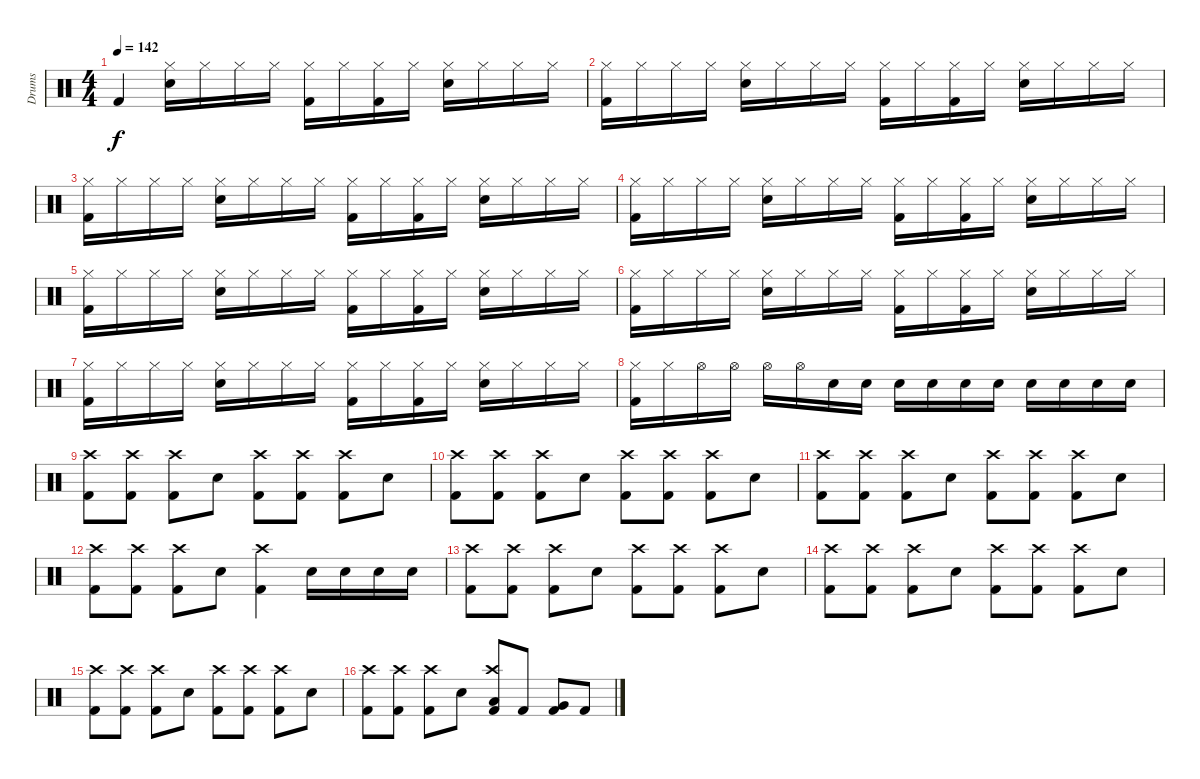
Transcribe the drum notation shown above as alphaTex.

\track ("Drums" "Drums") {instrument percussion}
\staff {score}
\articulation defaults
\ts (4 4)
\tempo 142
\clef neutral
\ks c "Kick (hit) 2".4{dy f}
("Hi-Hat (closed)" "Snare (hit) 2").16 "Hi-Hat (closed)".16 "Hi-Hat (closed)".16 "Hi-Hat (closed)".16 ("Hi-Hat (closed)" "Kick (hit) 2").16 "Hi-Hat (closed)".16 ("Hi-Hat (closed)" "Kick (hit) 2").16 "Hi-Hat (closed)".16 ("Hi-Hat (closed)" "Snare (hit) 2").16 "Hi-Hat (closed)".16 "Hi-Hat (closed)".16 "Hi-Hat (closed)".16 |
("Hi-Hat (closed)" "Kick (hit) 2").16 "Hi-Hat (closed)".16 "Hi-Hat (closed)".16 "Hi-Hat (closed)".16 ("Hi-Hat (closed)" "Snare (hit) 2").16 "Hi-Hat (closed)".16 "Hi-Hat (closed)".16 "Hi-Hat (closed)".16 ("Hi-Hat (closed)" "Kick (hit) 2").16 "Hi-Hat (closed)".16 ("Hi-Hat (closed)" "Kick (hit) 2").16 "Hi-Hat (closed)".16 ("Hi-Hat (closed)" "Snare (hit) 2").16 "Hi-Hat (closed)".16 "Hi-Hat (closed)".16 "Hi-Hat (closed)".16 |
("Hi-Hat (closed)" "Kick (hit) 2").16 "Hi-Hat (closed)".16 "Hi-Hat (closed)".16 "Hi-Hat (closed)".16 ("Hi-Hat (closed)" "Snare (hit) 2").16 "Hi-Hat (closed)".16 "Hi-Hat (closed)".16 "Hi-Hat (closed)".16 ("Hi-Hat (closed)" "Kick (hit) 2").16 "Hi-Hat (closed)".16 ("Hi-Hat (closed)" "Kick (hit) 2").16 "Hi-Hat (closed)".16 ("Hi-Hat (closed)" "Snare (hit) 2").16 "Hi-Hat (closed)".16 "Hi-Hat (closed)".16 "Hi-Hat (closed)".16 |
("Hi-Hat (closed)" "Kick (hit) 2").16 "Hi-Hat (closed)".16 "Hi-Hat (closed)".16 "Hi-Hat (closed)".16 ("Hi-Hat (closed)" "Snare (hit) 2").16 "Hi-Hat (closed)".16 "Hi-Hat (closed)".16 "Hi-Hat (closed)".16 ("Hi-Hat (closed)" "Kick (hit) 2").16 "Hi-Hat (closed)".16 ("Hi-Hat (closed)" "Kick (hit) 2").16 "Hi-Hat (closed)".16 ("Hi-Hat (closed)" "Snare (hit) 2").16 "Hi-Hat (closed)".16 "Hi-Hat (closed)".16 "Hi-Hat (closed)".16 |
("Hi-Hat (closed)" "Kick (hit) 2").16 "Hi-Hat (closed)".16 "Hi-Hat (closed)".16 "Hi-Hat (closed)".16 ("Hi-Hat (closed)" "Snare (hit) 2").16 "Hi-Hat (closed)".16 "Hi-Hat (closed)".16 "Hi-Hat (closed)".16 ("Hi-Hat (closed)" "Kick (hit) 2").16 "Hi-Hat (closed)".16 ("Hi-Hat (closed)" "Kick (hit) 2").16 "Hi-Hat (closed)".16 ("Hi-Hat (closed)" "Snare (hit) 2").16 "Hi-Hat (closed)".16 "Hi-Hat (closed)".16 "Hi-Hat (closed)".16 |
("Hi-Hat (closed)" "Kick (hit) 2").16 "Hi-Hat (closed)".16 "Hi-Hat (closed)".16 "Hi-Hat (closed)".16 ("Hi-Hat (closed)" "Snare (hit) 2").16 "Hi-Hat (closed)".16 "Hi-Hat (closed)".16 "Hi-Hat (closed)".16 ("Hi-Hat (closed)" "Kick (hit) 2").16 "Hi-Hat (closed)".16 ("Hi-Hat (closed)" "Kick (hit) 2").16 "Hi-Hat (closed)".16 ("Hi-Hat (closed)" "Snare (hit) 2").16 "Hi-Hat (closed)".16 "Hi-Hat (closed)".16 "Hi-Hat (closed)".16 |
("Hi-Hat (closed)" "Kick (hit) 2").16 "Hi-Hat (closed)".16 "Hi-Hat (closed)".16 "Hi-Hat (closed)".16 ("Hi-Hat (closed)" "Snare (hit) 2").16 "Hi-Hat (closed)".16 "Hi-Hat (closed)".16 "Hi-Hat (closed)".16 ("Hi-Hat (closed)" "Kick (hit) 2").16 "Hi-Hat (closed)".16 ("Hi-Hat (closed)" "Kick (hit) 2").16 "Hi-Hat (closed)".16 ("Hi-Hat (closed)" "Snare (hit) 2").16 "Hi-Hat (closed)".16 "Hi-Hat (closed)".16 "Hi-Hat (closed)".16 |
("Hi-Hat (closed)" "Kick (hit) 2").16 "Hi-Hat (closed)".16 "Hi-Hat (open)".16 "Hi-Hat (open)".16 "Hi-Hat (open)".16 "Hi-Hat (open)".16 "Snare (hit) 2".16 "Snare (hit) 2".16 "Snare (hit) 2".16 "Snare (hit) 2".16 "Snare (hit) 2".16 "Snare (hit) 2".16 "Snare (hit) 2".16 "Snare (hit) 2".16 "Snare (hit) 2".16 "Snare (hit) 2".16 |
("Crash high (hit)" "Kick (hit) 2").8 ("Crash high (hit)" "Kick (hit) 2").8 ("Crash high (hit)" "Kick (hit) 2").8 "Snare (hit) 2".8 ("Crash high (hit)" "Kick (hit) 2").8 ("Crash high (hit)" "Kick (hit) 2").8 ("Crash high (hit)" "Kick (hit) 2").8 "Snare (hit) 2".8 |
("Crash high (hit)" "Kick (hit) 2").8 ("Crash high (hit)" "Kick (hit) 2").8 ("Crash high (hit)" "Kick (hit) 2").8 "Snare (hit) 2".8 ("Crash high (hit)" "Kick (hit) 2").8 ("Crash high (hit)" "Kick (hit) 2").8 ("Crash high (hit)" "Kick (hit) 2").8 "Snare (hit) 2".8 |
("Crash high (hit)" "Kick (hit) 2").8 ("Crash high (hit)" "Kick (hit) 2").8 ("Crash high (hit)" "Kick (hit) 2").8 "Snare (hit) 2".8 ("Crash high (hit)" "Kick (hit) 2").8 ("Crash high (hit)" "Kick (hit) 2").8 ("Crash high (hit)" "Kick (hit) 2").8 "Snare (hit) 2".8 |
("Crash high (hit)" "Kick (hit) 2").8 ("Crash high (hit)" "Kick (hit) 2").8 ("Crash high (hit)" "Kick (hit) 2").8 "Snare (hit) 2".8 ("Crash high (hit)" "Kick (hit) 2").4 "Snare (hit) 2".16 "Snare (hit) 2".16 "Snare (hit) 2".16 "Snare (hit)".16 |
("Crash high (hit)" "Kick (hit) 2").8 ("Crash high (hit)" "Kick (hit) 2").8 ("Crash high (hit)" "Kick (hit) 2").8 "Snare (hit) 2".8 ("Crash high (hit)" "Kick (hit) 2").8 ("Crash high (hit)" "Kick (hit) 2").8 ("Crash high (hit)" "Kick (hit) 2").8 "Snare (hit) 2".8 |
("Crash high (hit)" "Kick (hit) 2").8 ("Crash high (hit)" "Kick (hit) 2").8 ("Crash high (hit)" "Kick (hit) 2").8 "Snare (hit) 2".8 ("Crash high (hit)" "Kick (hit) 2").8 ("Crash high (hit)" "Kick (hit) 2").8 ("Crash high (hit)" "Kick (hit) 2").8 "Snare (hit) 2".8 |
("Crash high (hit)" "Kick (hit) 2").8 ("Crash high (hit)" "Kick (hit) 2").8 ("Crash high (hit)" "Kick (hit) 2").8 "Snare (hit) 2".8 ("Crash high (hit)" "Kick (hit) 2").8 ("Crash high (hit)" "Kick (hit) 2").8 ("Crash high (hit)" "Kick (hit) 2").8 "Snare (hit) 2".8 |
("Crash high (hit)" "Kick (hit) 2").8 ("Crash high (hit)" "Kick (hit) 2").8 ("Crash high (hit)" "Kick (hit) 2").8 "Snare (hit) 2".8 ("Crash high (hit)" "Low Tom (hit)" "Kick (hit) 2").8 "Kick (hit) 2".8 ("Very Low Tom (hit)" "Kick (hit) 2").8 "Kick (hit) 2".8
